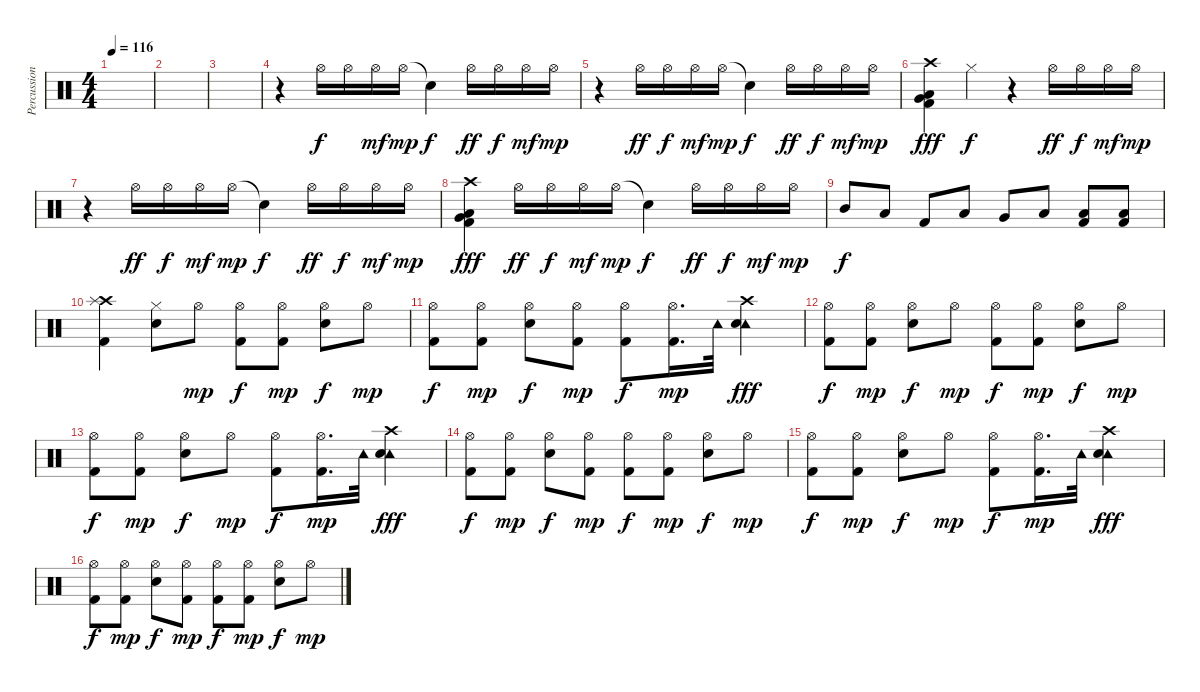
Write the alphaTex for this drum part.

\track ("Percussion (Peter)" "Percussion") {instrument percussion}
\staff {score}
\articulation defaults
\ts (4 4)
\tempo 116
\clef neutral
\ks c
|
|
|
r.4 "Hi-Hat (open)".16 "Hi-Hat (open)".16{dy f} "Hi-Hat (open)".16{dy mf} "Hi-Hat (open)".16{dy mp} "Snare (hit)"{t}.4{dy f} "Hi-Hat (open)".16{dy ff} "Hi-Hat (open)".16{dy f} "Hi-Hat (open)".16{dy mf} "Hi-Hat (open)".16{dy mp} |
r.4 "Hi-Hat (open)".16{dy ff} "Hi-Hat (open)".16{dy f} "Hi-Hat (open)".16{dy mf} "Hi-Hat (open)".16{dy mp} "Snare (hit)"{t}.4{dy f} "Hi-Hat (open)".16{dy ff} "Hi-Hat (open)".16{dy f} "Hi-Hat (open)".16{dy mf} "Hi-Hat (open)".16{dy mp} |
("Crash high (hit)" "Low Tom (hit)" "Very Low Tom (hit)" "Kick (hit) 2").4{dy fff} "Hi-Hat (closed)".4{dy f} r.4 "Hi-Hat (open)".16{dy ff} "Hi-Hat (open)".16{dy f} "Hi-Hat (open)".16{dy mf} "Hi-Hat (open)".16{dy mp} |
r.4 "Hi-Hat (open)".16{dy ff} "Hi-Hat (open)".16{dy f} "Hi-Hat (open)".16{dy mf} "Hi-Hat (open)".16{dy mp} "Snare (hit)"{t}.4{dy f} "Hi-Hat (open)".16{dy ff} "Hi-Hat (open)".16{dy f} "Hi-Hat (open)".16{dy mf} "Hi-Hat (open)".16{dy mp} |
("Crash high (hit)" "Very Low Tom (hit)" "Low Tom (hit)" "Kick (hit) 2").4{dy fff} "Hi-Hat (open)".16{dy ff} "Hi-Hat (open)".16{dy f} "Hi-Hat (open)".16{dy mf} "Hi-Hat (open)".16{dy mp} "Snare (hit)"{t}.4{dy f} "Hi-Hat (open)".16{dy ff} "Hi-Hat (open)".16{dy f} "Hi-Hat (open)".16{dy mf} "Hi-Hat (open)".16{dy mp} |
"Mid Tom (hit)".8{dy f} "Low Tom (hit)".8 "Kick (hit) 2".8 "Low Tom (hit)".8 "Very Low Tom (hit)".8 "Low Floor Tom (hit)".8 ("Low Floor Tom (hit)" "Kick (hit) 2").8 ("Low Floor Tom (hit)" "Kick (hit) 2").8 |
("Crash high (hit)" "Splash (hit)" "Kick (hit) 2").4 ("Hi-Hat (closed)" "Snare (hit) 2").8 "Hi-Hat (open)".8{dy mp} ("Hi-Hat (open)" "Kick (hit) 2").8{dy f} ("Hi-Hat (open)" "Kick (hit) 2").8{dy mp} ("Hi-Hat (open)" "Snare (hit) 2").8{dy f} "Hi-Hat (open)".8{dy mp} |
("Hi-Hat (open)" "Kick (hit) 2").8{dy f} ("Hi-Hat (open)" "Kick (hit) 2").8{dy mp} ("Hi-Hat (open)" "Snare (hit) 2").8{dy f} ("Hi-Hat (open)" "Kick (hit) 2").8{dy mp} ("Hi-Hat (open)" "Kick (hit) 2").8{dy f} ("Hi-Hat (open)" "Kick (hit) 2").16{d dy mp} "Tambourine (hit)".32 ("Crash high (hit)" "Tambourine (hit)" "Snare (hit) 2").4{dy fff} |
("Hi-Hat (open)" "Kick (hit) 2").8{dy f} ("Hi-Hat (open)" "Kick (hit) 2").8{dy mp} ("Hi-Hat (open)" "Snare (hit) 2").8{dy f} "Hi-Hat (open)".8{dy mp} ("Hi-Hat (open)" "Kick (hit) 2").8{dy f} ("Hi-Hat (open)" "Kick (hit) 2").8{dy mp} ("Hi-Hat (open)" "Snare (hit) 2").8{dy f} "Hi-Hat (open)".8{dy mp} |
("Hi-Hat (open)" "Kick (hit) 2").8{dy f} ("Hi-Hat (open)" "Kick (hit) 2").8{dy mp} ("Hi-Hat (open)" "Snare (hit) 2").8{dy f} "Hi-Hat (open)".8{dy mp} ("Hi-Hat (open)" "Kick (hit) 2").8{dy f} ("Hi-Hat (open)" "Kick (hit) 2").16{d dy mp} "Tambourine (hit)".32 ("Crash high (hit)" "Tambourine (hit)" "Snare (hit) 2").4{dy fff} |
("Hi-Hat (open)" "Kick (hit) 2").8{dy f} ("Hi-Hat (open)" "Kick (hit) 2").8{dy mp} ("Hi-Hat (open)" "Snare (hit) 2").8{dy f} ("Hi-Hat (open)" "Kick (hit) 2").8{dy mp} ("Hi-Hat (open)" "Kick (hit) 2").8{dy f} ("Hi-Hat (open)" "Kick (hit) 2").8{dy mp} ("Hi-Hat (open)" "Snare (hit) 2").8{dy f} "Hi-Hat (open)".8{dy mp} |
("Hi-Hat (open)" "Kick (hit) 2").8{dy f} ("Hi-Hat (open)" "Kick (hit) 2").8{dy mp} ("Hi-Hat (open)" "Snare (hit) 2").8{dy f} "Hi-Hat (open)".8{dy mp} ("Hi-Hat (open)" "Kick (hit) 2").8{dy f} ("Hi-Hat (open)" "Kick (hit) 2").16{d dy mp} "Tambourine (hit)".32 ("Crash high (hit)" "Tambourine (hit)" "Snare (hit) 2").4{dy fff} |
("Hi-Hat (open)" "Kick (hit) 2").8{dy f} ("Hi-Hat (open)" "Kick (hit) 2").8{dy mp} ("Hi-Hat (open)" "Snare (hit) 2").8{dy f} ("Hi-Hat (open)" "Kick (hit) 2").8{dy mp} ("Hi-Hat (open)" "Kick (hit) 2").8{dy f} ("Hi-Hat (open)" "Kick (hit) 2").8{dy mp} ("Hi-Hat (open)" "Snare (hit) 2").8{dy f} "Hi-Hat (open)".8{dy mp}
